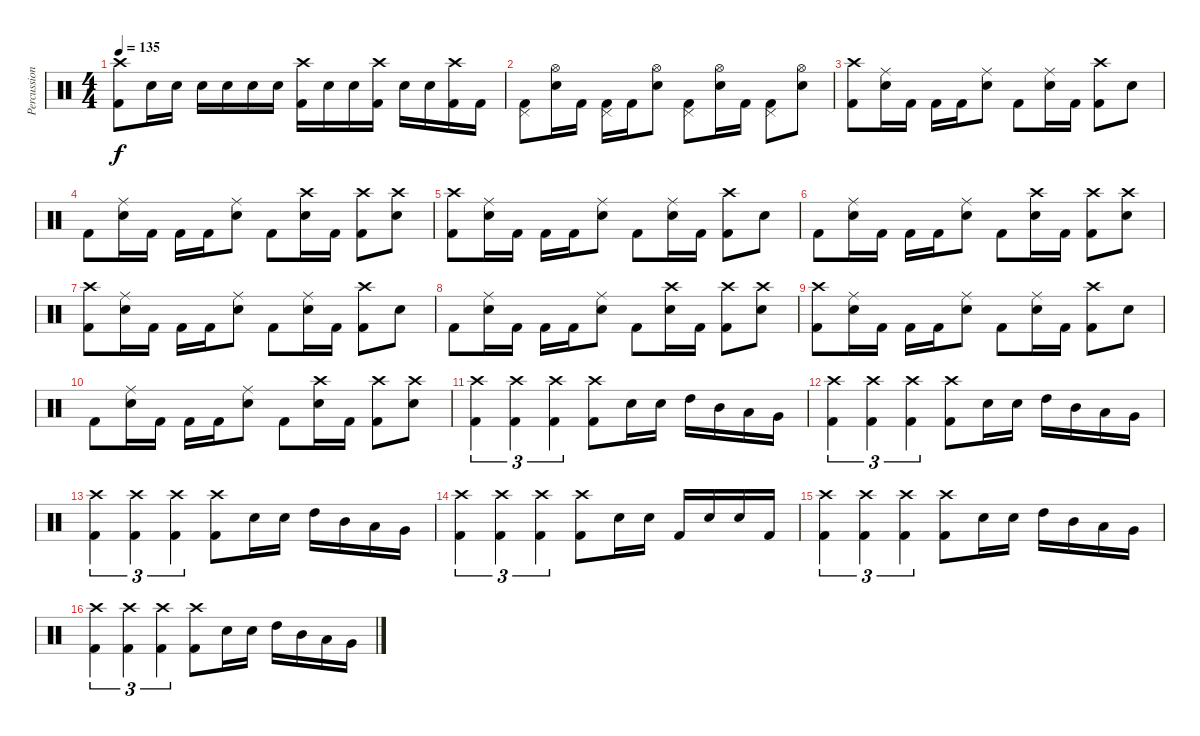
\track ("Percussion" "Percussion") {instrument percussion}
\staff {score}
\articulation defaults
\ts (4 4)
\tempo 135
\clef neutral
\ks c
("Kick (hit) 2" "Crash high (hit)").8{dy f} "Electric Snare (hit)".16 "Electric Snare (hit)".16 "Electric Snare (hit)".16 "Electric Snare (hit)".16 "Electric Snare (hit)".16 "Electric Snare (hit)".16 ("Kick (hit) 2" "Crash high (hit)").16 "Electric Snare (hit)".16 "Electric Snare (hit)".16 ("Kick (hit) 2" "Crash high (hit)").16 "Electric Snare (hit)".16 "Electric Snare (hit)".16 ("Kick (hit) 2" "Crash high (hit)").16 "Kick (hit) 2".16 |
("Pedal Hi-Hat (hit)" "Kick (hit) 2").8 ("Hi-Hat (open)" "Electric Snare (hit)").16 "Kick (hit) 2".16 ("Pedal Hi-Hat (hit)" "Kick (hit) 2").16 "Kick (hit) 2".16 ("Hi-Hat (open)" "Electric Snare (hit)").8 ("Pedal Hi-Hat (hit)" "Kick (hit) 2").8 ("Hi-Hat (open)" "Electric Snare (hit)").16 "Kick (hit) 2".16 ("Pedal Hi-Hat (hit)" "Kick (hit) 2").8 ("Hi-Hat (open)" "Electric Snare (hit)").8 |
("Kick (hit) 2" "Crash high (hit)").8 ("Electric Snare (hit)" "Ride (middle)").16 "Kick (hit) 2".16 "Kick (hit) 2".16 "Kick (hit) 2".16 ("Electric Snare (hit)" "Ride (middle)").8 "Kick (hit) 2".8 ("Electric Snare (hit)" "Ride (middle)").16 "Kick (hit) 2".16 ("Kick (hit) 2" "Crash high (hit)").8 "Electric Snare (hit)".8 |
"Kick (hit) 2".8 ("Electric Snare (hit)" "Ride (middle)").16 "Kick (hit) 2".16 "Kick (hit) 2".16 "Kick (hit) 2".16 ("Electric Snare (hit)" "Ride (middle)").8 "Kick (hit) 2".8 ("Electric Snare (hit)" "Crash high (hit)").16 "Kick (hit) 2".16 ("Kick (hit) 2" "Crash high (hit)").8 ("Electric Snare (hit)" "Crash high (hit)").8 |
("Kick (hit) 2" "Crash high (hit)").8 ("Electric Snare (hit)" "Ride (middle)").16 "Kick (hit) 2".16 "Kick (hit) 2".16 "Kick (hit) 2".16 ("Electric Snare (hit)" "Ride (middle)").8 "Kick (hit) 2".8 ("Electric Snare (hit)" "Ride (middle)").16 "Kick (hit) 2".16 ("Kick (hit) 2" "Crash high (hit)").8 "Electric Snare (hit)".8 |
"Kick (hit) 2".8 ("Electric Snare (hit)" "Ride (middle)").16 "Kick (hit) 2".16 "Kick (hit) 2".16 "Kick (hit) 2".16 ("Electric Snare (hit)" "Ride (middle)").8 "Kick (hit) 2".8 ("Electric Snare (hit)" "Crash high (hit)").16 "Kick (hit) 2".16 ("Kick (hit) 2" "Crash high (hit)").8 ("Electric Snare (hit)" "Crash high (hit)").8 |
("Kick (hit) 2" "Crash high (hit)").8 ("Electric Snare (hit)" "Ride (middle)").16 "Kick (hit) 2".16 "Kick (hit) 2".16 "Kick (hit) 2".16 ("Electric Snare (hit)" "Ride (middle)").8 "Kick (hit) 2".8 ("Electric Snare (hit)" "Ride (middle)").16 "Kick (hit) 2".16 ("Kick (hit) 2" "Crash high (hit)").8 "Electric Snare (hit)".8 |
"Kick (hit) 2".8 ("Electric Snare (hit)" "Ride (middle)").16 "Kick (hit) 2".16 "Kick (hit) 2".16 "Kick (hit) 2".16 ("Electric Snare (hit)" "Ride (middle)").8 "Kick (hit) 2".8 ("Electric Snare (hit)" "Crash high (hit)").16 "Kick (hit) 2".16 ("Kick (hit) 2" "Crash high (hit)").8 ("Electric Snare (hit)" "Crash high (hit)").8 |
("Kick (hit) 2" "Crash high (hit)").8 ("Electric Snare (hit)" "Ride (middle)").16 "Kick (hit) 2".16 "Kick (hit) 2".16 "Kick (hit) 2".16 ("Electric Snare (hit)" "Ride (middle)").8 "Kick (hit) 2".8 ("Electric Snare (hit)" "Ride (middle)").16 "Kick (hit) 2".16 ("Kick (hit) 2" "Crash high (hit)").8 "Electric Snare (hit)".8 |
"Kick (hit) 2".8 ("Electric Snare (hit)" "Ride (middle)").16 "Kick (hit) 2".16 "Kick (hit) 2".16 "Kick (hit) 2".16 ("Electric Snare (hit)" "Ride (middle)").8 "Kick (hit) 2".8 ("Electric Snare (hit)" "Crash high (hit)").16 "Kick (hit) 2".16 ("Kick (hit) 2" "Crash high (hit)").8 ("Electric Snare (hit)" "Crash high (hit)").8 |
("Kick (hit) 2" "Crash high (hit)").4{tu (3 2)} ("Kick (hit) 2" "Crash high (hit)").4{tu (3 2)} ("Kick (hit) 2" "Crash high (hit)").4{tu (3 2)} ("Kick (hit) 2" "Crash high (hit)").8 "Electric Snare (hit)".16 "Electric Snare (hit)".16 "High Tom (hit)".16 "Mid Tom (hit)".16 "Low Tom (hit)".16 "Very Low Tom (hit)".16 |
("Kick (hit) 2" "Crash high (hit)").4{tu (3 2)} ("Kick (hit) 2" "Crash high (hit)").4{tu (3 2)} ("Kick (hit) 2" "Crash high (hit)").4{tu (3 2)} ("Kick (hit) 2" "Crash high (hit)").8 "Electric Snare (hit)".16 "Electric Snare (hit)".16 "High Tom (hit)".16 "Mid Tom (hit)".16 "Low Tom (hit)".16 "Very Low Tom (hit)".16 |
("Kick (hit) 2" "Crash high (hit)").4{tu (3 2)} ("Kick (hit) 2" "Crash high (hit)").4{tu (3 2)} ("Kick (hit) 2" "Crash high (hit)").4{tu (3 2)} ("Kick (hit) 2" "Crash high (hit)").8 "Electric Snare (hit)".16 "Electric Snare (hit)".16 "High Tom (hit)".16 "Mid Tom (hit)".16 "Low Tom (hit)".16 "Very Low Tom (hit)".16 |
("Kick (hit) 2" "Crash high (hit)").4{tu (3 2)} ("Kick (hit) 2" "Crash high (hit)").4{tu (3 2)} ("Kick (hit) 2" "Crash high (hit)").4{tu (3 2)} ("Kick (hit) 2" "Crash high (hit)").8 "Electric Snare (hit)".16 "Electric Snare (hit)".16 "Kick (hit) 2".16 "Electric Snare (hit)".16 "Electric Snare (hit)".16 "Kick (hit) 2".16 |
("Kick (hit) 2" "Crash high (hit)").4{tu (3 2)} ("Kick (hit) 2" "Crash high (hit)").4{tu (3 2)} ("Kick (hit) 2" "Crash high (hit)").4{tu (3 2)} ("Kick (hit) 2" "Crash high (hit)").8 "Electric Snare (hit)".16 "Electric Snare (hit)".16 "High Tom (hit)".16 "Mid Tom (hit)".16 "Low Tom (hit)".16 "Very Low Tom (hit)".16 |
("Kick (hit) 2" "Crash high (hit)").4{tu (3 2)} ("Kick (hit) 2" "Crash high (hit)").4{tu (3 2)} ("Kick (hit) 2" "Crash high (hit)").4{tu (3 2)} ("Kick (hit) 2" "Crash high (hit)").8 "Electric Snare (hit)".16 "Electric Snare (hit)".16 "High Tom (hit)".16 "Mid Tom (hit)".16 "Low Tom (hit)".16 "Very Low Tom (hit)".16
